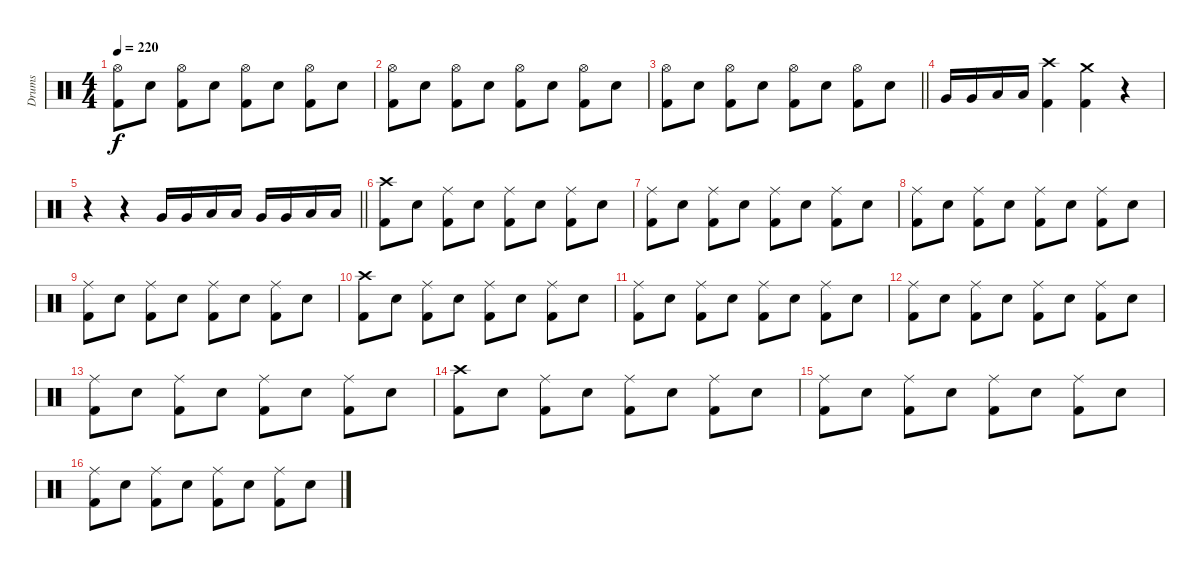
\track ("Drums" "Drums") {instrument percussion}
\staff {score}
\articulation defaults
\ts (4 4)
\tempo 220
\clef neutral
\ks c
("Hi-Hat (open)" "Kick (hit) 2").8{dy f} "Electric Snare (hit)".8 ("Hi-Hat (open)" "Kick (hit) 2").8 "Electric Snare (hit)".8 ("Hi-Hat (open)" "Kick (hit) 2").8 "Electric Snare (hit)".8 ("Hi-Hat (open)" "Kick (hit) 2").8 "Electric Snare (hit)".8 |
("Hi-Hat (open)" "Kick (hit) 2").8 "Electric Snare (hit)".8 ("Hi-Hat (open)" "Kick (hit) 2").8 "Electric Snare (hit)".8 ("Hi-Hat (open)" "Kick (hit) 2").8 "Electric Snare (hit)".8 ("Hi-Hat (open)" "Kick (hit) 2").8 "Electric Snare (hit)".8 |
\barLineRight lightlight
("Hi-Hat (open)" "Kick (hit) 2").8 "Electric Snare (hit)".8 ("Hi-Hat (open)" "Kick (hit) 2").8 "Electric Snare (hit)".8 ("Hi-Hat (open)" "Kick (hit) 2").8 "Electric Snare (hit)".8 ("Hi-Hat (open)" "Kick (hit) 2").8 "Electric Snare (hit)".8 |
"Very Low Tom (hit)".16 "Very Low Tom (hit)".16 "Low Floor Tom (hit)".16 "Low Floor Tom (hit)".16 ("Crash high (hit)" "Kick (hit) 2").4 ("Crash medium (hit)" "Kick (hit) 2").4 r.4 |
\barLineRight lightlight
r.4 r.4 "Very Low Tom (hit)".16 "Very Low Tom (hit)".16 "Low Tom (hit)".16 "Low Tom (hit)".16 "Very Low Tom (hit)".16 "Very Low Tom (hit)".16 "Low Floor Tom (hit)".16 "Low Floor Tom (hit)".16 |
("Crash high (hit)" "Kick (hit) 2").8 "Electric Snare (hit)".8 ("Ride (middle)" "Kick (hit) 2").8 "Electric Snare (hit)".8 ("Ride (middle)" "Kick (hit) 2").8 "Electric Snare (hit)".8 ("Ride (middle)" "Kick (hit) 2").8 "Electric Snare (hit)".8 |
("Ride (middle)" "Kick (hit) 2").8 "Electric Snare (hit)".8 ("Ride (middle)" "Kick (hit) 2").8 "Electric Snare (hit)".8 ("Ride (middle)" "Kick (hit) 2").8 "Electric Snare (hit)".8 ("Ride (middle)" "Kick (hit) 2").8 "Electric Snare (hit)".8 |
("Ride (middle)" "Kick (hit) 2").8 "Electric Snare (hit)".8 ("Ride (middle)" "Kick (hit) 2").8 "Electric Snare (hit)".8 ("Ride (middle)" "Kick (hit) 2").8 "Electric Snare (hit)".8 ("Ride (middle)" "Kick (hit) 2").8 "Electric Snare (hit)".8 |
("Ride (middle)" "Kick (hit) 2").8 "Electric Snare (hit)".8 ("Ride (middle)" "Kick (hit) 2").8 "Electric Snare (hit)".8 ("Ride (middle)" "Kick (hit) 2").8 "Electric Snare (hit)".8 ("Ride (middle)" "Kick (hit) 2").8 "Electric Snare (hit)".8 |
("Crash high (hit)" "Kick (hit) 2").8 "Electric Snare (hit)".8 ("Ride (middle)" "Kick (hit) 2").8 "Electric Snare (hit)".8 ("Ride (middle)" "Kick (hit) 2").8 "Electric Snare (hit)".8 ("Ride (middle)" "Kick (hit) 2").8 "Electric Snare (hit)".8 |
("Ride (middle)" "Kick (hit) 2").8 "Electric Snare (hit)".8 ("Ride (middle)" "Kick (hit) 2").8 "Electric Snare (hit)".8 ("Ride (middle)" "Kick (hit) 2").8 "Electric Snare (hit)".8 ("Ride (middle)" "Kick (hit) 2").8 "Electric Snare (hit)".8 |
("Ride (middle)" "Kick (hit) 2").8 "Electric Snare (hit)".8 ("Ride (middle)" "Kick (hit) 2").8 "Electric Snare (hit)".8 ("Ride (middle)" "Kick (hit) 2").8 "Electric Snare (hit)".8 ("Ride (middle)" "Kick (hit) 2").8 "Electric Snare (hit)".8 |
("Ride (middle)" "Kick (hit) 2").8 "Electric Snare (hit)".8 ("Ride (middle)" "Kick (hit) 2").8 "Electric Snare (hit)".8 ("Ride (middle)" "Kick (hit) 2").8 "Electric Snare (hit)".8 ("Ride (middle)" "Kick (hit) 2").8 "Electric Snare (hit)".8 |
("Crash high (hit)" "Kick (hit) 2").8 "Electric Snare (hit)".8 ("Ride (middle)" "Kick (hit) 2").8 "Electric Snare (hit)".8 ("Ride (middle)" "Kick (hit) 2").8 "Electric Snare (hit)".8 ("Ride (middle)" "Kick (hit) 2").8 "Electric Snare (hit)".8 |
("Ride (middle)" "Kick (hit) 2").8 "Electric Snare (hit)".8 ("Ride (middle)" "Kick (hit) 2").8 "Electric Snare (hit)".8 ("Ride (middle)" "Kick (hit) 2").8 "Electric Snare (hit)".8 ("Ride (middle)" "Kick (hit) 2").8 "Electric Snare (hit)".8 |
("Ride (middle)" "Kick (hit) 2").8 "Electric Snare (hit)".8 ("Ride (middle)" "Kick (hit) 2").8 "Electric Snare (hit)".8 ("Ride (middle)" "Kick (hit) 2").8 "Electric Snare (hit)".8 ("Ride (middle)" "Kick (hit) 2").8 "Electric Snare (hit)".8
